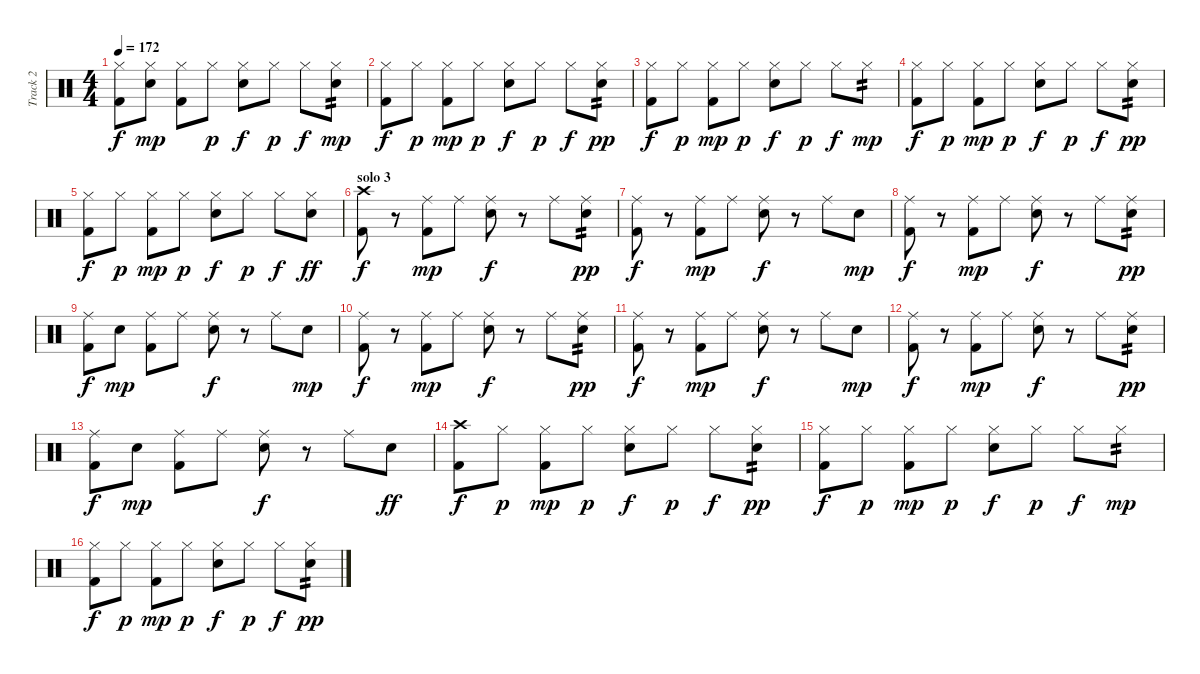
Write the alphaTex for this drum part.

\track ("Track 2" "Track 2") {instrument percussion}
\staff {score}
\articulation defaults
\ts (4 4)
\tempo 172
\clef neutral
\ks c
("Hi-Hat (closed)" "Kick (hit) 2").8{dy f} ("Hi-Hat (closed)" "Snare (hit) 2").8{dy mp} ("Hi-Hat (closed)" "Kick (hit) 2").8 "Hi-Hat (closed)".8{dy p} ("Hi-Hat (closed)" "Snare (hit) 2").8{dy f} "Hi-Hat (closed)".8{dy p} "Hi-Hat (closed)".8{dy f} ("Hi-Hat (closed)" "Snare (hit) 2").8{tp 2 dy mp} |
("Hi-Hat (closed)" "Kick (hit) 2").8{dy f} "Hi-Hat (closed)".8{dy p} ("Hi-Hat (closed)" "Kick (hit) 2").8{dy mp} "Hi-Hat (closed)".8{dy p} ("Hi-Hat (closed)" "Snare (hit) 2").8{dy f} "Hi-Hat (closed)".8{dy p} "Hi-Hat (closed)".8{dy f} ("Hi-Hat (closed)" "Snare (hit) 2").8{tp 2 dy pp} |
("Hi-Hat (closed)" "Kick (hit) 2").8{dy f} "Hi-Hat (closed)".8{dy p} ("Hi-Hat (closed)" "Kick (hit) 2").8{dy mp} "Hi-Hat (closed)".8{dy p} ("Hi-Hat (closed)" "Snare (hit) 2").8{dy f} "Hi-Hat (closed)".8{dy p} "Hi-Hat (closed)".8{dy f} "Hi-Hat (closed)".8{tp 2 dy mp} |
("Hi-Hat (closed)" "Kick (hit) 2").8{dy f} "Hi-Hat (closed)".8{dy p} ("Hi-Hat (closed)" "Kick (hit) 2").8{dy mp} "Hi-Hat (closed)".8{dy p} ("Hi-Hat (closed)" "Snare (hit) 2").8{dy f} "Hi-Hat (closed)".8{dy p} "Hi-Hat (closed)".8{dy f} ("Hi-Hat (closed)" "Snare (hit) 2").8{tp 2 dy pp} |
("Hi-Hat (closed)" "Kick (hit) 2").8{dy f} "Hi-Hat (closed)".8{dy p} ("Hi-Hat (closed)" "Kick (hit) 2").8{dy mp} "Hi-Hat (closed)".8{dy p} ("Hi-Hat (closed)" "Snare (hit) 2").8{dy f} "Hi-Hat (closed)".8{dy p} "Hi-Hat (closed)".8{dy f} ("Hi-Hat (closed)" "Snare (hit) 2").8{dy ff} |
\section ("" "solo 3")
("Crash high (hit)" "Kick (hit) 2").8{dy f} r.8 ("Ride (middle)" "Kick (hit) 2").8{dy mp} "Ride (middle)".8 ("Ride (middle)" "Snare (hit) 2").8{dy f} r.8 "Ride (middle)".8 ("Ride (middle)" "Snare (hit) 2").8{tp 2 dy pp} |
("Ride (middle)" "Kick (hit) 2").8{dy f} r.8 ("Ride (middle)" "Kick (hit) 2").8{dy mp} "Ride (middle)".8 ("Ride (middle)" "Snare (hit) 2").8{dy f} r.8 "Ride (middle)".8 "Snare (hit) 2".8{dy mp} |
("Ride (middle)" "Kick (hit) 2").8{dy f} r.8 ("Ride (middle)" "Kick (hit) 2").8{dy mp} "Ride (middle)".8 ("Ride (middle)" "Snare (hit) 2").8{dy f} r.8 "Ride (middle)".8 ("Ride (middle)" "Snare (hit) 2").8{tp 2 dy pp} |
("Ride (middle)" "Kick (hit) 2").8{dy f} "Snare (hit) 2".8{dy mp} ("Ride (middle)" "Kick (hit) 2").8 "Ride (middle)".8 ("Ride (middle)" "Snare (hit) 2").8{dy f} r.8 "Ride (middle)".8 "Snare (hit) 2".8{dy mp} |
("Ride (middle)" "Kick (hit) 2").8{dy f} r.8 ("Ride (middle)" "Kick (hit) 2").8{dy mp} "Ride (middle)".8 ("Ride (middle)" "Snare (hit) 2").8{dy f} r.8 "Ride (middle)".8 ("Ride (middle)" "Snare (hit) 2").8{tp 2 dy pp} |
("Ride (middle)" "Kick (hit) 2").8{dy f} r.8 ("Ride (middle)" "Kick (hit) 2").8{dy mp} "Ride (middle)".8 ("Ride (middle)" "Snare (hit) 2").8{dy f} r.8 "Ride (middle)".8 "Snare (hit) 2".8{dy mp} |
("Ride (middle)" "Kick (hit) 2").8{dy f} r.8 ("Ride (middle)" "Kick (hit) 2").8{dy mp} "Ride (middle)".8 ("Ride (middle)" "Snare (hit) 2").8{dy f} r.8 "Ride (middle)".8 ("Ride (middle)" "Snare (hit) 2").8{tp 2 dy pp} |
("Ride (middle)" "Kick (hit) 2").8{dy f} "Snare (hit) 2".8{dy mp} ("Ride (middle)" "Kick (hit) 2").8 "Ride (middle)".8 ("Ride (middle)" "Snare (hit) 2").8{dy f} r.8 "Ride (middle)".8 "Snare (hit) 2".8{dy ff} |
("Crash high (hit)" "Kick (hit) 2").8{dy f} "Hi-Hat (closed)".8{dy p} ("Hi-Hat (closed)" "Kick (hit) 2").8{dy mp} "Hi-Hat (closed)".8{dy p} ("Hi-Hat (closed)" "Snare (hit) 2").8{dy f} "Hi-Hat (closed)".8{dy p} "Hi-Hat (closed)".8{dy f} ("Hi-Hat (closed)" "Snare (hit) 2").8{tp 2 dy pp} |
("Hi-Hat (closed)" "Kick (hit) 2").8{dy f} "Hi-Hat (closed)".8{dy p} ("Hi-Hat (closed)" "Kick (hit) 2").8{dy mp} "Hi-Hat (closed)".8{dy p} ("Hi-Hat (closed)" "Snare (hit) 2").8{dy f} "Hi-Hat (closed)".8{dy p} "Hi-Hat (closed)".8{dy f} "Hi-Hat (closed)".8{tp 2 dy mp} |
("Hi-Hat (closed)" "Kick (hit) 2").8{dy f} "Hi-Hat (closed)".8{dy p} ("Hi-Hat (closed)" "Kick (hit) 2").8{dy mp} "Hi-Hat (closed)".8{dy p} ("Hi-Hat (closed)" "Snare (hit) 2").8{dy f} "Hi-Hat (closed)".8{dy p} "Hi-Hat (closed)".8{dy f} ("Hi-Hat (closed)" "Snare (hit) 2").8{tp 2 dy pp}
